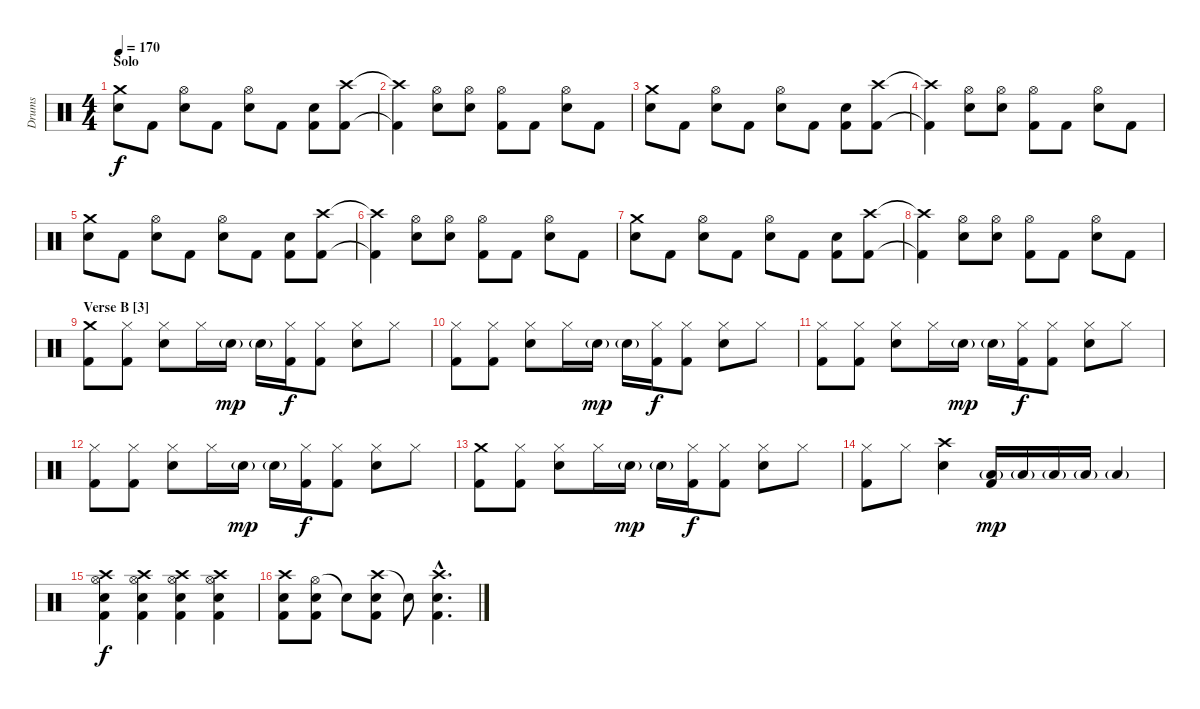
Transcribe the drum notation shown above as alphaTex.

\track ("Drums" "Drums") {instrument percussion}
\staff {score}
\articulation defaults
\ts (4 4)
\section ("" "Solo")
\tempo 170
\clef neutral
\ks c
("Crash medium (hit)" "Electric Snare (hit)").8{dy f} "Kick (hit) 2".8 ("Hi-Hat (open)" "Electric Snare (hit)").8 "Kick (hit) 2".8 ("Hi-Hat (open)" "Electric Snare (hit)").8 "Kick (hit) 2".8 ("Electric Snare (hit)" "Kick (hit) 2").8 ("Crash high (hit)" "Kick (hit) 2").8 |
("Crash high (hit)"{t} "Kick (hit) 2"{t}).4 ("Hi-Hat (open)" "Electric Snare (hit)").8 ("Hi-Hat (open)" "Electric Snare (hit)").8 ("Hi-Hat (open)" "Kick (hit) 2").8 "Kick (hit) 2".8 ("Hi-Hat (open)" "Electric Snare (hit)").8 "Kick (hit) 2".8 |
("Crash medium (hit)" "Electric Snare (hit)").8 "Kick (hit) 2".8 ("Hi-Hat (open)" "Electric Snare (hit)").8 "Kick (hit) 2".8 ("Hi-Hat (open)" "Electric Snare (hit)").8 "Kick (hit) 2".8 ("Electric Snare (hit)" "Kick (hit) 2").8 ("Crash high (hit)" "Kick (hit) 2").8 |
("Crash high (hit)"{t} "Kick (hit) 2"{t}).4 ("Hi-Hat (open)" "Electric Snare (hit)").8 ("Hi-Hat (open)" "Electric Snare (hit)").8 ("Hi-Hat (open)" "Kick (hit) 2").8 "Kick (hit) 2".8 ("Hi-Hat (open)" "Electric Snare (hit)").8 "Kick (hit) 2".8 |
("Crash medium (hit)" "Electric Snare (hit)").8 "Kick (hit) 2".8 ("Hi-Hat (open)" "Electric Snare (hit)").8 "Kick (hit) 2".8 ("Hi-Hat (open)" "Electric Snare (hit)").8 "Kick (hit) 2".8 ("Electric Snare (hit)" "Kick (hit) 2").8 ("Crash high (hit)" "Kick (hit) 2").8 |
("Crash high (hit)"{t} "Kick (hit) 2"{t}).4 ("Hi-Hat (open)" "Electric Snare (hit)").8 ("Hi-Hat (open)" "Electric Snare (hit)").8 ("Hi-Hat (open)" "Kick (hit) 2").8 "Kick (hit) 2".8 ("Hi-Hat (open)" "Electric Snare (hit)").8 "Kick (hit) 2".8 |
("Crash medium (hit)" "Electric Snare (hit)").8 "Kick (hit) 2".8 ("Hi-Hat (open)" "Electric Snare (hit)").8 "Kick (hit) 2".8 ("Hi-Hat (open)" "Electric Snare (hit)").8 "Kick (hit) 2".8 ("Electric Snare (hit)" "Kick (hit) 2").8 ("Crash high (hit)" "Kick (hit) 2").8 |
("Crash high (hit)"{t} "Kick (hit) 2"{t}).4 ("Hi-Hat (open)" "Electric Snare (hit)").8 ("Hi-Hat (open)" "Electric Snare (hit)").8 ("Hi-Hat (open)" "Kick (hit) 2").8 "Kick (hit) 2".8 ("Hi-Hat (open)" "Electric Snare (hit)").8 "Kick (hit) 2".8 |
\section ("" "Verse B [3]")
("Crash medium (hit)" "Kick (hit) 2").8 ("Hi-Hat (closed)" "Kick (hit) 2").8 ("Hi-Hat (closed)" "Electric Snare (hit)").8 "Hi-Hat (closed)".16 "Electric Snare (hit)"{g}.16{dy mp} "Electric Snare (hit)"{g}.16 ("Hi-Hat (closed)" "Kick (hit) 2").16{dy f} ("Hi-Hat (closed)" "Kick (hit) 2").8 ("Hi-Hat (closed)" "Electric Snare (hit)").8 "Hi-Hat (closed)".8 |
("Hi-Hat (closed)" "Kick (hit) 2").8 ("Hi-Hat (closed)" "Kick (hit) 2").8 ("Hi-Hat (closed)" "Electric Snare (hit)").8 "Hi-Hat (closed)".16 "Electric Snare (hit)"{g}.16{dy mp} "Electric Snare (hit)"{g}.16 ("Hi-Hat (closed)" "Kick (hit) 2").16{dy f} ("Hi-Hat (closed)" "Kick (hit) 2").8 ("Hi-Hat (closed)" "Electric Snare (hit)").8 "Hi-Hat (closed)".8 |
("Hi-Hat (closed)" "Kick (hit) 2").8 ("Hi-Hat (closed)" "Kick (hit) 2").8 ("Hi-Hat (closed)" "Electric Snare (hit)").8 "Hi-Hat (closed)".16 "Electric Snare (hit)"{g}.16{dy mp} "Electric Snare (hit)"{g}.16 ("Hi-Hat (closed)" "Kick (hit) 2").16{dy f} ("Hi-Hat (closed)" "Kick (hit) 2").8 ("Hi-Hat (closed)" "Electric Snare (hit)").8 "Hi-Hat (closed)".8 |
("Hi-Hat (closed)" "Kick (hit) 2").8 ("Hi-Hat (closed)" "Kick (hit) 2").8 ("Hi-Hat (closed)" "Electric Snare (hit)").8 "Hi-Hat (closed)".16 "Electric Snare (hit)"{g}.16{dy mp} "Electric Snare (hit)"{g}.16 ("Hi-Hat (closed)" "Kick (hit) 2").16{dy f} ("Hi-Hat (closed)" "Kick (hit) 2").8 ("Hi-Hat (closed)" "Electric Snare (hit)").8 "Hi-Hat (closed)".8 |
("Crash medium (hit)" "Kick (hit) 2").8 ("Hi-Hat (closed)" "Kick (hit) 2").8 ("Hi-Hat (closed)" "Electric Snare (hit)").8 "Hi-Hat (closed)".16 "Electric Snare (hit)"{g}.16{dy mp} "Electric Snare (hit)"{g}.16 ("Hi-Hat (closed)" "Kick (hit) 2").16{dy f} ("Hi-Hat (closed)" "Kick (hit) 2").8 ("Hi-Hat (closed)" "Electric Snare (hit)").8 "Hi-Hat (closed)".8 |
("Hi-Hat (closed)" "Kick (hit) 2").8 "Hi-Hat (closed)".8 ("Crash high (hit)" "Electric Snare (hit)").4 ("Low Tom (hit)"{g} "Kick (hit) 2").16{dy mp} "Low Tom (hit)"{g}.16 "Low Tom (hit)"{g}.16 "Low Tom (hit)"{g}.16 "Low Tom (hit)"{g}.4 |
("Hi-Hat (open)" "Crash high (hit)" "Electric Snare (hit)" "Kick (hit) 2").4{dy f} ("Hi-Hat (open)" "Crash high (hit)" "Electric Snare (hit)" "Kick (hit) 2").4 ("Hi-Hat (open)" "Crash high (hit)" "Electric Snare (hit)" "Kick (hit) 2").4 ("Hi-Hat (open)" "Crash high (hit)" "Electric Snare (hit)" "Kick (hit) 2").4 |
("Crash high (hit)" "Electric Snare (hit)" "Kick (hit) 2").8 ("Hi-Hat (open)" "Electric Snare (hit)" "Kick (hit) 2").8 "Snare (hit)"{t}.8 ("Crash high (hit)" "Electric Snare (hit)" "Kick (hit) 2").8 "Snare (hit)"{t}.8 ("Crash high (hit)"{hac} "Electric Snare (hit)"{hac} "Kick (hit) 2"{hac}).4{d}
